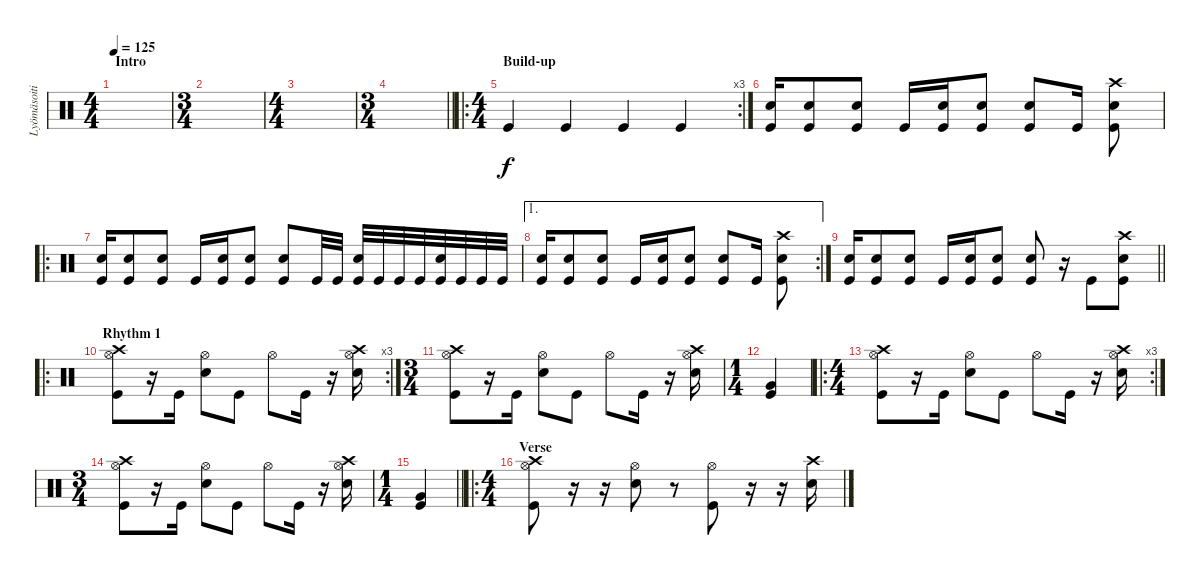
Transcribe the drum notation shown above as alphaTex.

\track ("Lyömäsoitin" "Lyömäsoiti") {instrument percussion}
\staff {score}
\articulation defaults
\ts (4 4)
\section ("" "Intro")
\tempo 125
\clef neutral
\ks c
|
\ts (3 4)
|
\ts (4 4)
|
\ts (3 4)
\barLineRight lightlight
|
\ro
\rc 3
\ts (4 4)
\section ("" "Build-up")
"Kick (hit)".4 "Kick (hit)".4 "Kick (hit)".4 "Kick (hit)".4 |
("Snare (hit) 2" "Kick (hit)").16 ("Snare (hit) 2" "Kick (hit)").8 ("Snare (hit) 2" "Kick (hit)").8 "Kick (hit)".16 ("Snare (hit) 2" "Kick (hit)").16 ("Snare (hit) 2" "Kick (hit)").8 ("Snare (hit) 2" "Kick (hit)").8 "Kick (hit)".16 ("Kick (hit)" "Crash high (hit)" "Snare (hit) 2").8 |
\ro
("Kick (hit)" "Snare (hit) 2").16 ("Kick (hit)" "Snare (hit) 2").8 ("Kick (hit)" "Snare (hit) 2").8 "Kick (hit)".16 ("Snare (hit) 2" "Kick (hit)").16 ("Snare (hit) 2" "Kick (hit)").8 ("Snare (hit) 2" "Kick (hit)").8 "Kick (hit)".32 "Kick (hit)".32 ("Kick (hit)" "Snare (hit) 2").32 "Kick (hit)".32 "Kick (hit)".32 "Kick (hit)".32 ("Kick (hit)" "Snare (hit) 2").32 "Kick (hit)".32 "Kick (hit)".32 "Kick (hit)".32 |
\ae 1
\rc 2
("Snare (hit) 2" "Kick (hit)").16 ("Snare (hit) 2" "Kick (hit)").8 ("Snare (hit) 2" "Kick (hit)").8 "Kick (hit)".16 ("Snare (hit) 2" "Kick (hit)").16 ("Snare (hit) 2" "Kick (hit)").8 ("Snare (hit) 2" "Kick (hit)").8 "Kick (hit)".16 ("Snare (hit) 2" "Kick (hit)" "Crash high (hit)").8 |
\barLineRight lightlight
("Snare (hit) 2" "Kick (hit)").16 ("Snare (hit) 2" "Kick (hit)").8 ("Snare (hit) 2" "Kick (hit)").8 "Kick (hit)".16 ("Snare (hit) 2" "Kick (hit)").16 ("Snare (hit) 2" "Kick (hit)").8 ("Snare (hit) 2" "Kick (hit)").8 r.16 "Kick (hit)".8 ("Snare (hit) 2" "Kick (hit)" "Crash high (hit)").8 |
\ro
\rc 3
\section ("" "Rhythm 1")
("Kick (hit)" "Hi-Hat (open)" "Crash high (hit)").8 r.16 "Kick (hit)".16 ("Snare (hit) 2" "Hi-Hat (open)").8 "Kick (hit)".8 "Hi-Hat (open)".8 "Kick (hit)".16 r.16 ("Snare (hit) 2" "Hi-Hat (open)" "Crash high (hit)").16 |
\ts (3 4)
("Kick (hit)" "Hi-Hat (open)" "Crash high (hit)").8 r.16 "Kick (hit)".16 ("Snare (hit) 2" "Hi-Hat (open)").8 "Kick (hit)".8 "Hi-Hat (open)".8 "Kick (hit)".16 r.16 ("Snare (hit) 2" "Hi-Hat (open)" "Crash high (hit)").16 |
\ts (1 4)
("Very Low Tom (hit)" "Kick (hit)").4 |
\ro
\rc 3
\ts (4 4)
("Kick (hit)" "Hi-Hat (open)" "Crash high (hit)").8 r.16 "Kick (hit)".16 ("Snare (hit) 2" "Hi-Hat (open)").8 "Kick (hit)".8 "Hi-Hat (open)".8 "Kick (hit)".16 r.16 ("Snare (hit) 2" "Hi-Hat (open)" "Crash high (hit)").16 |
\ts (3 4)
("Kick (hit)" "Hi-Hat (open)" "Crash high (hit)").8 r.16 "Kick (hit)".16 ("Snare (hit) 2" "Hi-Hat (open)").8 "Kick (hit)".8 "Hi-Hat (open)".8 "Kick (hit)".16 r.16 ("Snare (hit) 2" "Hi-Hat (open)" "Crash high (hit)").16 |
\ts (1 4)
\barLineRight lightlight
("Kick (hit)" "Very Low Tom (hit)").4 |
\ro
\ts (4 4)
\section ("" "Verse")
("Kick (hit)" "Hi-Hat (open)" "Crash high (hit)").8 r.16 r.16 ("Snare (hit) 2" "Hi-Hat (open)").8 r.8 ("Hi-Hat (open)" "Kick (hit)").8 r.16 r.16 ("Snare (hit) 2" "Crash high (hit)").16
